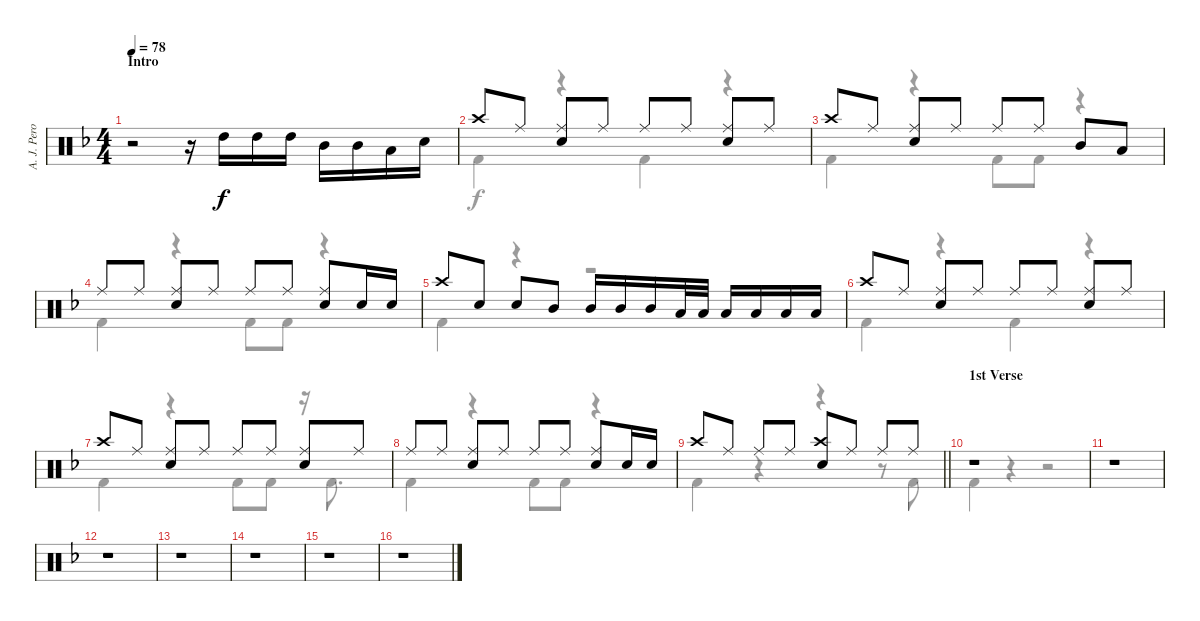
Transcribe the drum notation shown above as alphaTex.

\track ("A. J. Pero" "A. J. Pero") {instrument percussion}
\staff {score}
\articulation defaults
\voice
\ts (4 4)
\section ("" "Intro")
\tempo 78
\clef neutral
\ks dminor
r.2{dy f} r.16 "High Tom (hit)".16 "High Tom (hit)".16 "High Tom (hit)".16 "Mid Tom (hit)".16 "Mid Tom (hit)".16 "Low Tom (hit)".16 "Snare (hit) 2".16 |
"Crash high (hit)".8 "Ride (middle)".8 ("Ride (middle)" "Snare (hit) 2").8 "Ride (middle)".8 "Ride (middle)".8 "Ride (middle)".8 ("Ride (middle)" "Snare (hit) 2").8 "Ride (middle)".8 |
"Crash high (hit)".8 "Ride (middle)".8 ("Ride (middle)" "Snare (hit) 2").8 "Ride (middle)".8 "Ride (middle)".8 "Ride (middle)".8 "Mid Tom (hit)".8 "Low Tom (hit)".8 |
"Ride (middle)".8 "Ride (middle)".8 ("Ride (middle)" "Snare (hit) 2").8 "Ride (middle)".8 "Ride (middle)".8 "Ride (middle)".8 ("Ride (middle)" "Snare (hit) 2").8 "Snare (hit) 2".16 "Snare (hit) 2".16 |
"Crash high (hit)".8 "Snare (hit) 2".8 "Snare (hit) 2".8 "Mid Tom (hit)".8 "Mid Tom (hit)".16 "Mid Tom (hit)".16 "Mid Tom (hit)".16 "Low Tom (hit)".32 "Low Tom (hit)".32 "Low Tom (hit)".16 "Low Tom (hit)".16 "Low Tom (hit)".16 "Low Tom (hit)".16 |
"Crash high (hit)".8 "Ride (middle)".8 ("Ride (middle)" "Snare (hit) 2").8 "Ride (middle)".8 "Ride (middle)".8 "Ride (middle)".8 ("Ride (middle)" "Snare (hit) 2").8 "Ride (middle)".8 |
"Crash high (hit)".8 "Ride (middle)".8 ("Ride (middle)" "Snare (hit) 2").8 "Ride (middle)".8 "Ride (middle)".8 "Ride (middle)".8 ("Ride (middle)" "Snare (hit) 2").8 "Ride (middle)".8 |
"Ride (middle)".8 "Ride (middle)".8 ("Ride (middle)" "Snare (hit) 2").8 "Ride (middle)".8 "Ride (middle)".8 "Ride (middle)".8 ("Ride (middle)" "Snare (hit) 2").8 "Snare (hit) 2".16 "Snare (hit) 2".16 |
\barLineRight lightlight "Crash high (hit)".8 "Ride (middle)".8 "Ride (middle)".8 "Ride (middle)".8
("Crash high (hit)" "Snare (hit) 2").8 "Ride (middle)".8 "Ride (middle)".8 "Ride (middle)".8 |
\section ("" "1st Verse")
r.1 |
r.1 |
r.1 |
r.1 |
r.1 |
r.1 |
r.1
\voice
\clef neutral
\ottava regular
\simile none
\ks dminor
|
"Kick (hit) 2".4 r.4 "Kick (hit) 2".4 r.4 |
"Kick (hit) 2".4 r.4 "Kick (hit) 2".8 "Kick (hit) 2".8 r.4 |
"Kick (hit) 2".4 r.4 "Kick (hit) 2".8 "Kick (hit) 2".8 r.4 |
"Kick (hit) 2".4 r.4 r.2 |
"Kick (hit) 2".4 r.4 "Kick (hit) 2".4 r.4 |
"Kick (hit) 2".4 r.4 "Kick (hit) 2".8 "Kick (hit) 2".8 r.16 "Kick (hit) 2".8{d} |
"Kick (hit) 2".4 r.4 "Kick (hit) 2".8 "Kick (hit) 2".8 r.4 |
\barLineRight lightlight "Kick (hit) 2".4
r.4 r.4 r.8 "Kick (hit) 2".8 |
"Kick (hit) 2".4 r.4 r.2 |
|
|
|
|
|
